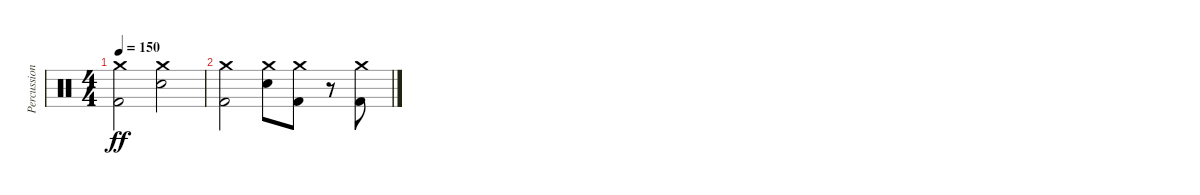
\track ("Percussion" "Percussion") {instrument percussion}
\staff {score}
\articulation defaults
\ts (4 4)
\tempo 150
\clef neutral
\ks c
("Crash medium (hit)" "Kick (hit) 2").2{dy ff} ("Crash medium (hit)" "Electric Snare (hit)").2 |
("Crash medium (hit)" "Kick (hit) 2").2 ("Crash medium (hit)" "Electric Snare (hit)").8 ("Crash medium (hit)" "Kick (hit) 2").8 r.8 ("Crash medium (hit)" "Kick (hit) 2").8
